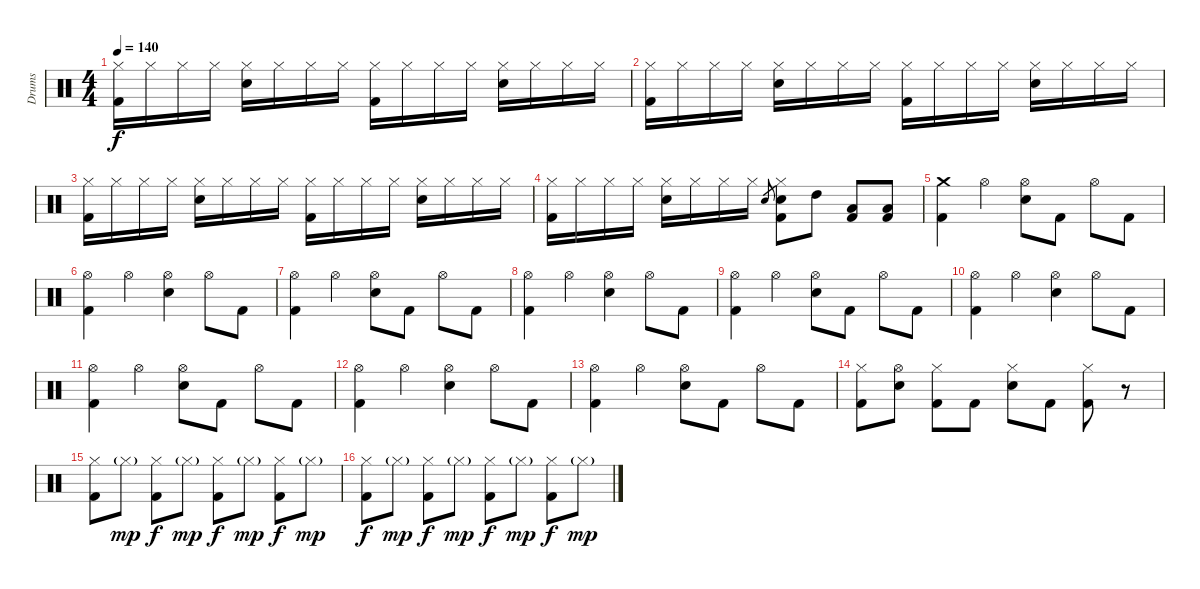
\track ("Drums" "Drums") {instrument percussion}
\staff {score}
\articulation defaults
\ts (4 4)
\tempo 140
\clef neutral
\ks c
("Hi-Hat (closed)" "Kick (hit) 2").16{dy f} "Hi-Hat (closed)".16 "Hi-Hat (closed)".16 "Hi-Hat (closed)".16 ("Hi-Hat (closed)" "Electric Snare (hit)").16 "Hi-Hat (closed)".16 "Hi-Hat (closed)".16 "Hi-Hat (closed)".16 ("Hi-Hat (closed)" "Kick (hit) 2").16 "Hi-Hat (closed)".16 "Hi-Hat (closed)".16 "Hi-Hat (closed)".16 ("Hi-Hat (closed)" "Electric Snare (hit)").16 "Hi-Hat (closed)".16 "Hi-Hat (closed)".16 "Hi-Hat (closed)".16 |
("Hi-Hat (closed)" "Kick (hit) 2").16 "Hi-Hat (closed)".16 "Hi-Hat (closed)".16 "Hi-Hat (closed)".16 ("Hi-Hat (closed)" "Electric Snare (hit)").16 "Hi-Hat (closed)".16 "Hi-Hat (closed)".16 "Hi-Hat (closed)".16 ("Hi-Hat (closed)" "Kick (hit) 2").16 "Hi-Hat (closed)".16 "Hi-Hat (closed)".16 "Hi-Hat (closed)".16 ("Hi-Hat (closed)" "Electric Snare (hit)").16 "Hi-Hat (closed)".16 "Hi-Hat (closed)".16 "Hi-Hat (closed)".16 |
("Hi-Hat (closed)" "Kick (hit) 2").16 "Hi-Hat (closed)".16 "Hi-Hat (closed)".16 "Hi-Hat (closed)".16 ("Hi-Hat (closed)" "Electric Snare (hit)").16 "Hi-Hat (closed)".16 "Hi-Hat (closed)".16 "Hi-Hat (closed)".16 ("Hi-Hat (closed)" "Kick (hit) 2").16 "Hi-Hat (closed)".16 "Hi-Hat (closed)".16 "Hi-Hat (closed)".16 ("Hi-Hat (closed)" "Electric Snare (hit)").16 "Hi-Hat (closed)".16 "Hi-Hat (closed)".16 "Hi-Hat (closed)".16 |
("Hi-Hat (closed)" "Kick (hit) 2").16 "Hi-Hat (closed)".16 "Hi-Hat (closed)".16 "Hi-Hat (closed)".16 ("Hi-Hat (closed)" "Electric Snare (hit)").16 "Hi-Hat (closed)".16 "Hi-Hat (closed)".16 "Hi-Hat (closed)".16 "Electric Snare (hit)".8{gr} ("Hi-Hat (closed)" "Electric Snare (hit)" "Kick (hit) 2").8 "High Tom (hit)".8 ("Low Floor Tom (hit)" "Kick (hit) 2").8 ("Low Floor Tom (hit)" "Kick (hit) 2").8 |
("Crash medium (hit)" "Kick (hit) 2").4 "Hi-Hat (open)".4 ("Hi-Hat (open)" "Electric Snare (hit)").8 "Kick (hit) 2".8 "Hi-Hat (open)".8 "Kick (hit) 2".8 |
("Hi-Hat (open)" "Kick (hit) 2").4 "Hi-Hat (open)".4 ("Hi-Hat (open)" "Electric Snare (hit)").4 "Hi-Hat (open)".8 "Kick (hit) 2".8 |
("Hi-Hat (open)" "Kick (hit) 2").4 "Hi-Hat (open)".4 ("Hi-Hat (open)" "Electric Snare (hit)").8 "Kick (hit) 2".8 "Hi-Hat (open)".8 "Kick (hit) 2".8 |
("Hi-Hat (open)" "Kick (hit) 2").4 "Hi-Hat (open)".4 ("Hi-Hat (open)" "Electric Snare (hit)").4 "Hi-Hat (open)".8 "Kick (hit) 2".8 |
("Hi-Hat (open)" "Kick (hit) 2").4 "Hi-Hat (open)".4 ("Hi-Hat (open)" "Electric Snare (hit)").8 "Kick (hit) 2".8 "Hi-Hat (open)".8 "Kick (hit) 2".8 |
("Hi-Hat (open)" "Kick (hit) 2").4 "Hi-Hat (open)".4 ("Hi-Hat (open)" "Electric Snare (hit)").4 "Hi-Hat (open)".8 "Kick (hit) 2".8 |
("Hi-Hat (open)" "Kick (hit) 2").4 "Hi-Hat (open)".4 ("Hi-Hat (open)" "Electric Snare (hit)").8 "Kick (hit) 2".8 "Hi-Hat (open)".8 "Kick (hit) 2".8 |
("Hi-Hat (open)" "Kick (hit) 2").4 "Hi-Hat (open)".4 ("Hi-Hat (open)" "Electric Snare (hit)").4 "Hi-Hat (open)".8 "Kick (hit) 2".8 |
("Hi-Hat (open)" "Kick (hit) 2").4 "Hi-Hat (open)".4 ("Hi-Hat (open)" "Electric Snare (hit)").8 "Kick (hit) 2".8 "Hi-Hat (open)".8 "Kick (hit) 2".8 |
("Hi-Hat (closed)" "Kick (hit) 2").8 ("Hi-Hat (open)" "Electric Snare (hit)").8 ("Hi-Hat (closed)" "Kick (hit) 2").8 "Kick (hit) 2".8 ("Hi-Hat (closed)" "Electric Snare (hit)").8 "Kick (hit) 2".8 ("Hi-Hat (closed)" "Kick (hit) 2").8 r.8 |
("Hi-Hat (closed)" "Kick (hit) 2").8 "Hi-Hat (closed)"{g}.8{dy mp} ("Hi-Hat (closed)" "Kick (hit) 2").8{dy f} "Hi-Hat (closed)"{g}.8{dy mp} ("Hi-Hat (closed)" "Kick (hit) 2").8{dy f} "Hi-Hat (closed)"{g}.8{dy mp} ("Hi-Hat (closed)" "Kick (hit) 2").8{dy f} "Hi-Hat (closed)"{g}.8{dy mp} |
("Hi-Hat (closed)" "Kick (hit) 2").8{dy f} "Hi-Hat (closed)"{g}.8{dy mp} ("Hi-Hat (closed)" "Kick (hit) 2").8{dy f} "Hi-Hat (closed)"{g}.8{dy mp} ("Hi-Hat (closed)" "Kick (hit) 2").8{dy f} "Hi-Hat (closed)"{g}.8{dy mp} ("Hi-Hat (closed)" "Kick (hit) 2").8{dy f} "Hi-Hat (closed)"{g}.8{dy mp}
